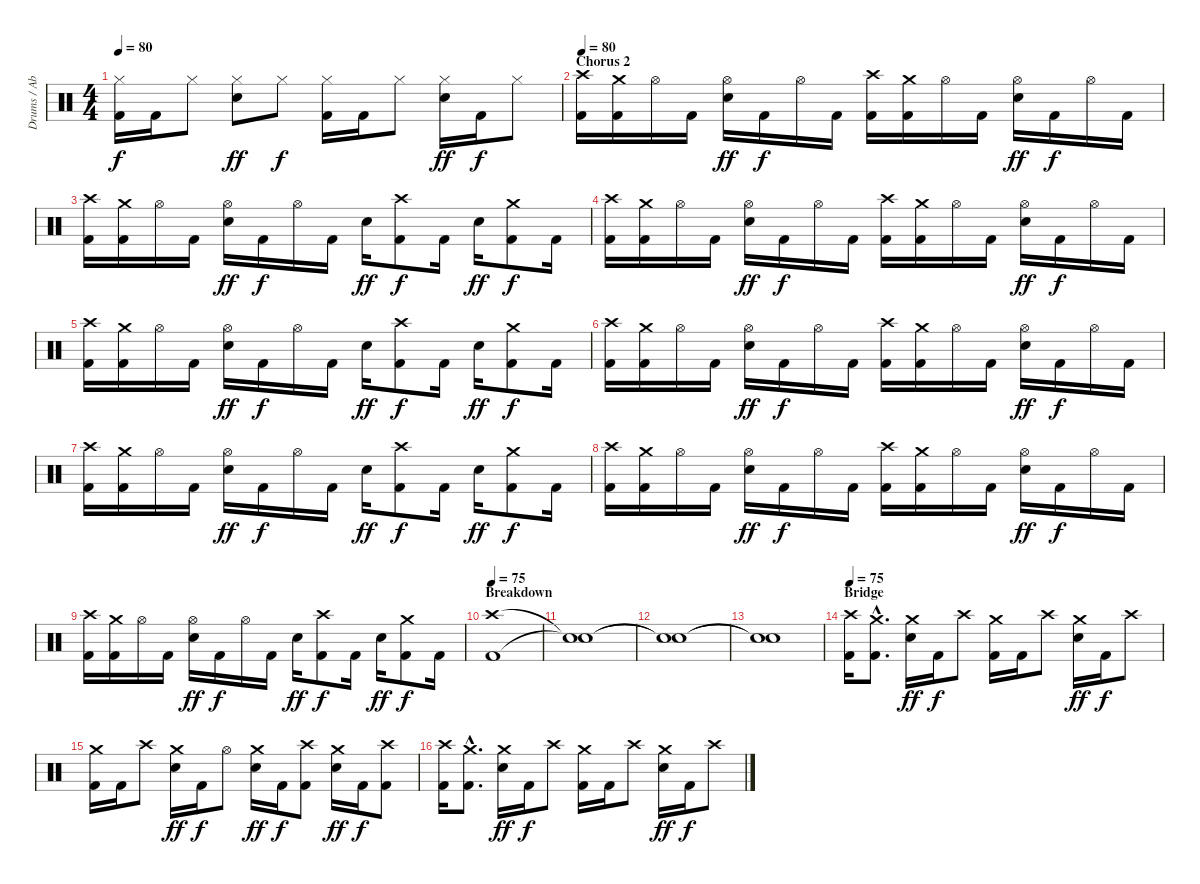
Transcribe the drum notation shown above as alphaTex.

\track ("Drums / Abe Cunningham" "Drums / Ab") {instrument percussion}
\staff {score}
\articulation defaults
\ts (4 4)
\tempo 80
\clef neutral
\ks c
("Hi-Hat (closed)" "Kick (hit) 2").16{dy f} "Kick (hit) 2".16 "Hi-Hat (closed)".8 ("Hi-Hat (closed)" "Electric Snare (hit)").8{dy ff} "Hi-Hat (closed)".8{dy f} ("Hi-Hat (closed)" "Kick (hit) 2").16 "Kick (hit) 2".16 "Hi-Hat (closed)".8 ("Hi-Hat (closed)" "Electric Snare (hit)").16{dy ff} "Kick (hit) 2".16{dy f} "Hi-Hat (closed)".8 |
\section ("" "Chorus 2")
\tempo 80
("Crash high (hit)" "Kick (hit) 2").16 ("Crash medium (hit)" "Kick (hit) 2").16 "Hi-Hat (open)".16 "Kick (hit) 2".16 ("Hi-Hat (open)" "Electric Snare (hit)").16{dy ff} "Kick (hit) 2".16{dy f} "Hi-Hat (open)".16 "Kick (hit) 2".16 ("Crash high (hit)" "Kick (hit) 2").16 ("Crash medium (hit)" "Kick (hit) 2").16 "Hi-Hat (open)".16 "Kick (hit) 2".16 ("Hi-Hat (open)" "Electric Snare (hit)").16{dy ff} "Kick (hit) 2".16{dy f} "Hi-Hat (open)".16 "Kick (hit) 2".16 |
("Crash high (hit)" "Kick (hit) 2").16 ("Crash medium (hit)" "Kick (hit) 2").16 "Hi-Hat (open)".16 "Kick (hit) 2".16 ("Hi-Hat (open)" "Electric Snare (hit)").16{dy ff} "Kick (hit) 2".16{dy f} "Hi-Hat (open)".16 "Kick (hit) 2".16 "Electric Snare (hit)".16{dy ff} ("Crash high (hit)" "Kick (hit) 2").8{dy f} "Kick (hit) 2".16 "Electric Snare (hit)".16{dy ff} ("Crash medium (hit)" "Kick (hit) 2").8{dy f} "Kick (hit) 2".16 |
("Crash high (hit)" "Kick (hit) 2").16 ("Crash medium (hit)" "Kick (hit) 2").16 "Hi-Hat (open)".16 "Kick (hit) 2".16 ("Hi-Hat (open)" "Electric Snare (hit)").16{dy ff} "Kick (hit) 2".16{dy f} "Hi-Hat (open)".16 "Kick (hit) 2".16 ("Crash high (hit)" "Kick (hit) 2").16 ("Crash medium (hit)" "Kick (hit) 2").16 "Hi-Hat (open)".16 "Kick (hit) 2".16 ("Hi-Hat (open)" "Electric Snare (hit)").16{dy ff} "Kick (hit) 2".16{dy f} "Hi-Hat (open)".16 "Kick (hit) 2".16 |
("Crash high (hit)" "Kick (hit) 2").16 ("Crash medium (hit)" "Kick (hit) 2").16 "Hi-Hat (open)".16 "Kick (hit) 2".16 ("Hi-Hat (open)" "Electric Snare (hit)").16{dy ff} "Kick (hit) 2".16{dy f} "Hi-Hat (open)".16 "Kick (hit) 2".16 "Electric Snare (hit)".16{dy ff} ("Crash high (hit)" "Kick (hit) 2").8{dy f} "Kick (hit) 2".16 "Electric Snare (hit)".16{dy ff} ("Crash medium (hit)" "Kick (hit) 2").8{dy f} "Kick (hit) 2".16 |
("Crash high (hit)" "Kick (hit) 2").16 ("Crash medium (hit)" "Kick (hit) 2").16 "Hi-Hat (open)".16 "Kick (hit) 2".16 ("Hi-Hat (open)" "Electric Snare (hit)").16{dy ff} "Kick (hit) 2".16{dy f} "Hi-Hat (open)".16 "Kick (hit) 2".16 ("Crash high (hit)" "Kick (hit) 2").16 ("Crash medium (hit)" "Kick (hit) 2").16 "Hi-Hat (open)".16 "Kick (hit) 2".16 ("Hi-Hat (open)" "Electric Snare (hit)").16{dy ff} "Kick (hit) 2".16{dy f} "Hi-Hat (open)".16 "Kick (hit) 2".16 |
("Crash high (hit)" "Kick (hit) 2").16 ("Crash medium (hit)" "Kick (hit) 2").16 "Hi-Hat (open)".16 "Kick (hit) 2".16 ("Hi-Hat (open)" "Electric Snare (hit)").16{dy ff} "Kick (hit) 2".16{dy f} "Hi-Hat (open)".16 "Kick (hit) 2".16 "Electric Snare (hit)".16{dy ff} ("Crash high (hit)" "Kick (hit) 2").8{dy f} "Kick (hit) 2".16 "Electric Snare (hit)".16{dy ff} ("Crash medium (hit)" "Kick (hit) 2").8{dy f} "Kick (hit) 2".16 |
("Crash high (hit)" "Kick (hit) 2").16 ("Crash medium (hit)" "Kick (hit) 2").16 "Hi-Hat (open)".16 "Kick (hit) 2".16 ("Hi-Hat (open)" "Electric Snare (hit)").16{dy ff} "Kick (hit) 2".16{dy f} "Hi-Hat (open)".16 "Kick (hit) 2".16 ("Crash high (hit)" "Kick (hit) 2").16 ("Crash medium (hit)" "Kick (hit) 2").16 "Hi-Hat (open)".16 "Kick (hit) 2".16 ("Hi-Hat (open)" "Electric Snare (hit)").16{dy ff} "Kick (hit) 2".16{dy f} "Hi-Hat (open)".16 "Kick (hit) 2".16 |
("Crash high (hit)" "Kick (hit) 2").16 ("Crash medium (hit)" "Kick (hit) 2").16 "Hi-Hat (open)".16 "Kick (hit) 2".16 ("Hi-Hat (open)" "Electric Snare (hit)").16{dy ff} "Kick (hit) 2".16{dy f} "Hi-Hat (open)".16 "Kick (hit) 2".16 "Electric Snare (hit)".16{dy ff} ("Crash high (hit)" "Kick (hit) 2").8{dy f} "Kick (hit) 2".16 "Electric Snare (hit)".16{dy ff} ("Crash medium (hit)" "Kick (hit) 2").8{dy f} "Kick (hit) 2".16 |
\section ("" "Breakdown")
\tempo 75
("Crash high (hit)" "Kick (hit) 2").1 |
("Snare (hit)"{t} "Snare (hit)"{t}).1 |
("Snare (hit)"{t} "Snare (hit)"{t}).1 |
("Snare (hit)"{t} "Snare (hit)"{t}).1 |
\section ("" "Bridge")
\tempo 75
("Crash high (hit)" "Kick (hit) 2").16 ("Crash medium (hit)"{hac} "Kick (hit) 2"{hac}).8{d} ("Crash medium (hit)" "Electric Snare (hit)").16{dy ff} "Kick (hit) 2".16{dy f} "Crash high (hit)".8 ("Crash medium (hit)" "Kick (hit) 2").16 "Kick (hit) 2".16 "Crash high (hit)".8 ("Crash medium (hit)" "Electric Snare (hit)").16{dy ff} "Kick (hit) 2".16{dy f} "Crash high (hit)".8 |
("Crash medium (hit)" "Kick (hit) 2").16 "Kick (hit) 2".16 "Crash high (hit)".8 ("Crash medium (hit)" "Electric Snare (hit)").16{dy ff} "Kick (hit) 2".16{dy f} "Hi-Hat (open)".8 ("Crash medium (hit)" "Electric Snare (hit)").16{dy ff} "Kick (hit) 2".16{dy f} ("Crash high (hit)" "Kick (hit) 2").8 ("Crash medium (hit)" "Electric Snare (hit)").16{dy ff} "Kick (hit) 2".16{dy f} ("Crash high (hit)" "Kick (hit) 2").8 |
("Crash high (hit)" "Kick (hit) 2").16 ("Crash medium (hit)"{hac} "Kick (hit) 2"{hac}).8{d} ("Crash medium (hit)" "Electric Snare (hit)").16{dy ff} "Kick (hit) 2".16{dy f} "Crash high (hit)".8 ("Crash medium (hit)" "Kick (hit) 2").16 "Kick (hit) 2".16 "Crash high (hit)".8 ("Crash medium (hit)" "Electric Snare (hit)").16{dy ff} "Kick (hit) 2".16{dy f} "Crash high (hit)".8
